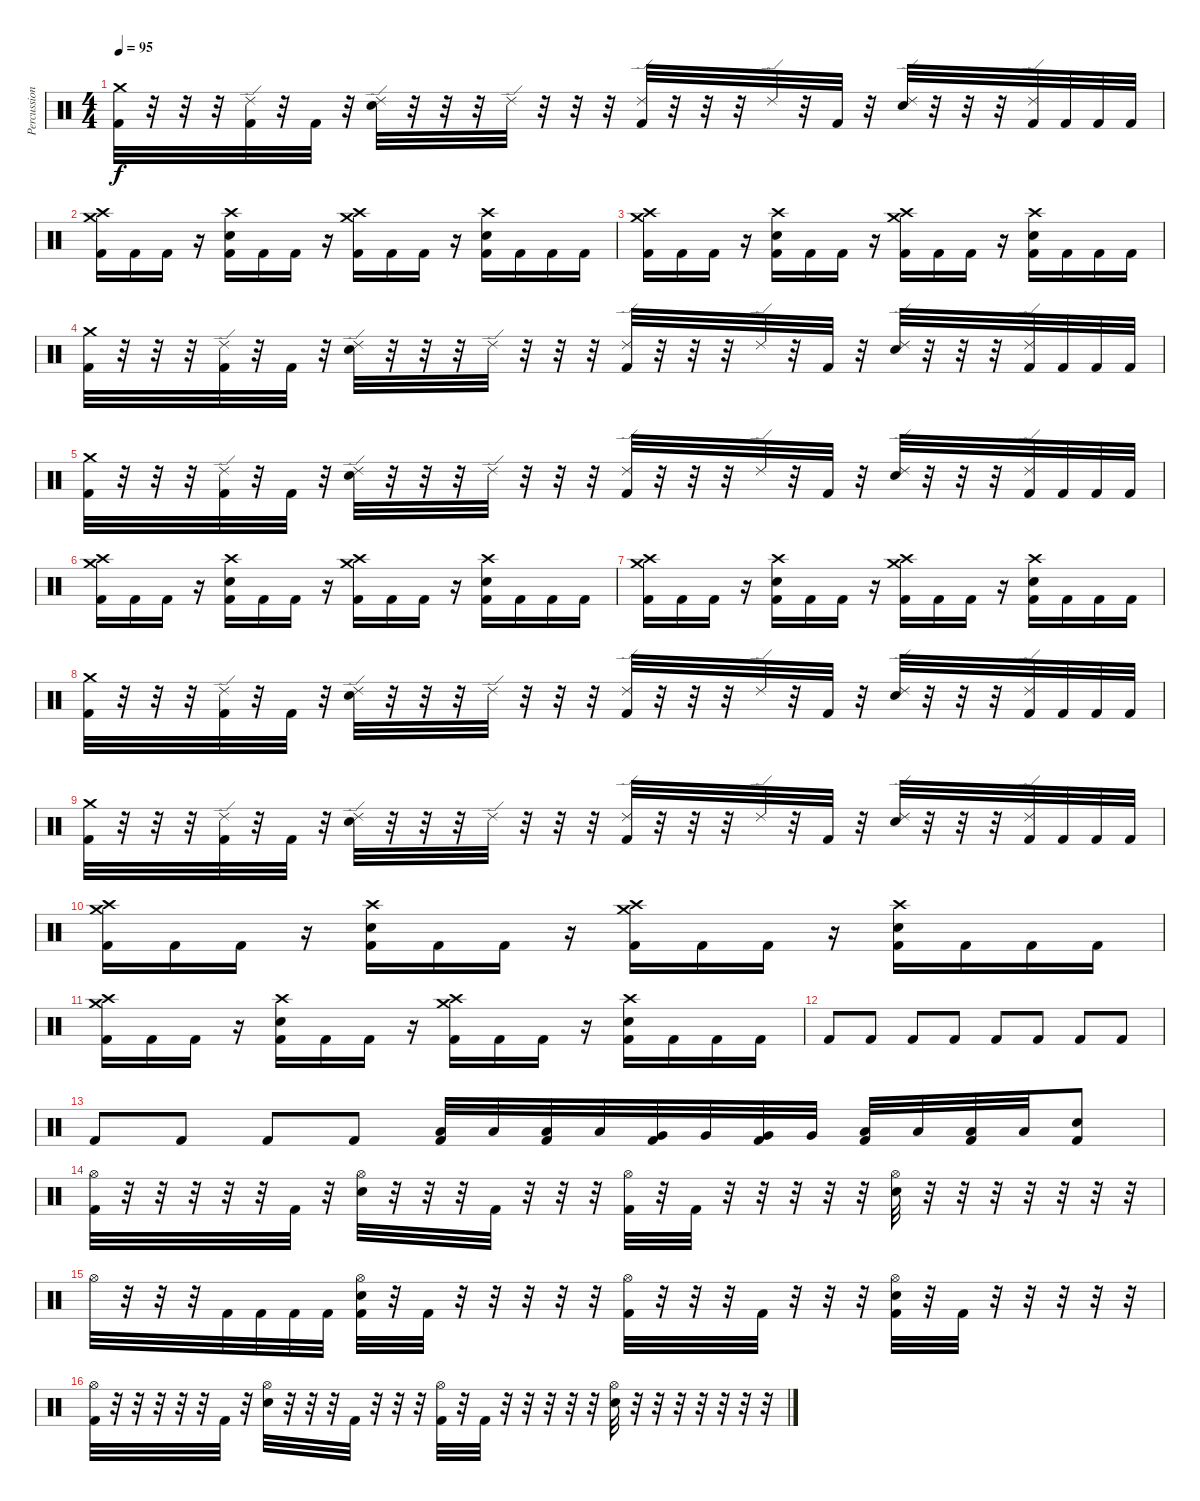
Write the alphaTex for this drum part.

\track ("Percussion" "Percussion") {instrument percussion}
\staff {score}
\articulation defaults
\ts (4 4)
\tempo 95
\clef neutral
\ks c
("Crash medium (hit)" "Kick (hit) 2").32{dy f} r.32 r.32 r.32 ("Ride (edge) 2" "Kick (hit) 2").32 r.32 "Kick (hit) 2".32 r.32 ("Ride (edge) 2" "Electric Snare (hit)").32 r.32 r.32 r.32 "Ride (edge) 2".32 r.32 r.32 r.32 ("Ride (edge) 2" "Kick (hit) 2").32 r.32 r.32 r.32 "Ride (edge) 2".32 r.32 "Kick (hit) 2".32 r.32 ("Ride (edge) 2" "Electric Snare (hit)").32 r.32 r.32 r.32 ("Ride (edge) 2" "Kick (hit) 2").32 "Kick (hit) 2".32 "Kick (hit) 2".32 "Kick (hit) 2".32 |
("Crash medium (hit)" "Crash high (hit)" "Kick (hit) 2").16 "Kick (hit) 2".16 "Kick (hit) 2".16 r.16 ("Crash high (hit)" "Electric Snare (hit)" "Kick (hit) 2").16 "Kick (hit) 2".16 "Kick (hit) 2".16 r.16 ("Crash medium (hit)" "Crash high (hit)" "Kick (hit) 2").16 "Kick (hit) 2".16 "Kick (hit) 2".16 r.16 ("Crash high (hit)" "Electric Snare (hit)" "Kick (hit) 2").16 "Kick (hit) 2".16 "Kick (hit) 2".16 "Kick (hit) 2".16 |
("Crash medium (hit)" "Crash high (hit)" "Kick (hit) 2").16 "Kick (hit) 2".16 "Kick (hit) 2".16 r.16 ("Crash high (hit)" "Electric Snare (hit)" "Kick (hit) 2").16 "Kick (hit) 2".16 "Kick (hit) 2".16 r.16 ("Crash medium (hit)" "Crash high (hit)" "Kick (hit) 2").16 "Kick (hit) 2".16 "Kick (hit) 2".16 r.16 ("Crash high (hit)" "Electric Snare (hit)" "Kick (hit) 2").16 "Kick (hit) 2".16 "Kick (hit) 2".16 "Kick (hit) 2".16 |
("Crash medium (hit)" "Kick (hit) 2").32 r.32 r.32 r.32 ("Ride (edge) 2" "Kick (hit) 2").32 r.32 "Kick (hit) 2".32 r.32 ("Ride (edge) 2" "Electric Snare (hit)").32 r.32 r.32 r.32 "Ride (edge) 2".32 r.32 r.32 r.32 ("Ride (edge) 2" "Kick (hit) 2").32 r.32 r.32 r.32 "Ride (edge) 2".32 r.32 "Kick (hit) 2".32 r.32 ("Ride (edge) 2" "Electric Snare (hit)").32 r.32 r.32 r.32 ("Ride (edge) 2" "Kick (hit) 2").32 "Kick (hit) 2".32 "Kick (hit) 2".32 "Kick (hit) 2".32 |
("Crash medium (hit)" "Kick (hit) 2").32 r.32 r.32 r.32 ("Ride (edge) 2" "Kick (hit) 2").32 r.32 "Kick (hit) 2".32 r.32 ("Ride (edge) 2" "Electric Snare (hit)").32 r.32 r.32 r.32 "Ride (edge) 2".32 r.32 r.32 r.32 ("Ride (edge) 2" "Kick (hit) 2").32 r.32 r.32 r.32 "Ride (edge) 2".32 r.32 "Kick (hit) 2".32 r.32 ("Ride (edge) 2" "Electric Snare (hit)").32 r.32 r.32 r.32 ("Ride (edge) 2" "Kick (hit) 2").32 "Kick (hit) 2".32 "Kick (hit) 2".32 "Kick (hit) 2".32 |
("Crash medium (hit)" "Crash high (hit)" "Kick (hit) 2").16 "Kick (hit) 2".16 "Kick (hit) 2".16 r.16 ("Crash high (hit)" "Electric Snare (hit)" "Kick (hit) 2").16 "Kick (hit) 2".16 "Kick (hit) 2".16 r.16 ("Crash medium (hit)" "Crash high (hit)" "Kick (hit) 2").16 "Kick (hit) 2".16 "Kick (hit) 2".16 r.16 ("Crash high (hit)" "Electric Snare (hit)" "Kick (hit) 2").16 "Kick (hit) 2".16 "Kick (hit) 2".16 "Kick (hit) 2".16 |
("Crash medium (hit)" "Crash high (hit)" "Kick (hit) 2").16 "Kick (hit) 2".16 "Kick (hit) 2".16 r.16 ("Crash high (hit)" "Electric Snare (hit)" "Kick (hit) 2").16 "Kick (hit) 2".16 "Kick (hit) 2".16 r.16 ("Crash medium (hit)" "Crash high (hit)" "Kick (hit) 2").16 "Kick (hit) 2".16 "Kick (hit) 2".16 r.16 ("Crash high (hit)" "Electric Snare (hit)" "Kick (hit) 2").16 "Kick (hit) 2".16 "Kick (hit) 2".16 "Kick (hit) 2".16 |
("Crash medium (hit)" "Kick (hit) 2").32 r.32 r.32 r.32 ("Ride (edge) 2" "Kick (hit) 2").32 r.32 "Kick (hit) 2".32 r.32 ("Ride (edge) 2" "Electric Snare (hit)").32 r.32 r.32 r.32 "Ride (edge) 2".32 r.32 r.32 r.32 ("Ride (edge) 2" "Kick (hit) 2").32 r.32 r.32 r.32 "Ride (edge) 2".32 r.32 "Kick (hit) 2".32 r.32 ("Ride (edge) 2" "Electric Snare (hit)").32 r.32 r.32 r.32 ("Ride (edge) 2" "Kick (hit) 2").32 "Kick (hit) 2".32 "Kick (hit) 2".32 "Kick (hit) 2".32 |
("Crash medium (hit)" "Kick (hit) 2").32 r.32 r.32 r.32 ("Ride (edge) 2" "Kick (hit) 2").32 r.32 "Kick (hit) 2".32 r.32 ("Ride (edge) 2" "Electric Snare (hit)").32 r.32 r.32 r.32 "Ride (edge) 2".32 r.32 r.32 r.32 ("Ride (edge) 2" "Kick (hit) 2").32 r.32 r.32 r.32 "Ride (edge) 2".32 r.32 "Kick (hit) 2".32 r.32 ("Ride (edge) 2" "Electric Snare (hit)").32 r.32 r.32 r.32 ("Ride (edge) 2" "Kick (hit) 2").32 "Kick (hit) 2".32 "Kick (hit) 2".32 "Kick (hit) 2".32 |
("Crash medium (hit)" "Crash high (hit)" "Kick (hit) 2").16 "Kick (hit) 2".16 "Kick (hit) 2".16 r.16 ("Crash high (hit)" "Electric Snare (hit)" "Kick (hit) 2").16 "Kick (hit) 2".16 "Kick (hit) 2".16 r.16 ("Crash medium (hit)" "Crash high (hit)" "Kick (hit) 2").16 "Kick (hit) 2".16 "Kick (hit) 2".16 r.16 ("Crash high (hit)" "Electric Snare (hit)" "Kick (hit) 2").16 "Kick (hit) 2".16 "Kick (hit) 2".16 "Kick (hit) 2".16 |
("Crash medium (hit)" "Crash high (hit)" "Kick (hit) 2").16 "Kick (hit) 2".16 "Kick (hit) 2".16 r.16 ("Crash high (hit)" "Electric Snare (hit)" "Kick (hit) 2").16 "Kick (hit) 2".16 "Kick (hit) 2".16 r.16 ("Crash medium (hit)" "Crash high (hit)" "Kick (hit) 2").16 "Kick (hit) 2".16 "Kick (hit) 2".16 r.16 ("Crash high (hit)" "Electric Snare (hit)" "Kick (hit) 2").16 "Kick (hit) 2".16 "Kick (hit) 2".16 "Kick (hit) 2".16 |
"Kick (hit) 2".8 "Kick (hit) 2".8 "Kick (hit) 2".8 "Kick (hit) 2".8 "Kick (hit) 2".8 "Kick (hit) 2".8 "Kick (hit) 2".8 "Kick (hit) 2".8 |
"Kick (hit) 2".8 "Kick (hit) 2".8 "Kick (hit) 2".8 "Kick (hit) 2".8 ("Low Tom (hit)" "Kick (hit) 2").32 "Low Tom (hit)".32 ("Low Tom (hit)" "Kick (hit) 2").32 "Low Tom (hit)".32 ("Very Low Tom (hit)" "Kick (hit) 2").32 "Very Low Tom (hit)".32 ("Very Low Tom (hit)" "Kick (hit) 2").32 "Very Low Tom (hit)".32 ("Low Floor Tom (hit)" "Kick (hit) 2").32 "Low Floor Tom (hit)".32 ("Low Floor Tom (hit)" "Kick (hit) 2").32 "Low Floor Tom (hit)".32 ("Electric Snare (hit)" "Kick (hit) 2").8 |
("Hi-Hat (open)" "Kick (hit) 2").32 r.32 r.32 r.32 r.32 r.32 "Kick (hit) 2".32 r.32 ("Hi-Hat (open)" "Electric Snare (hit)").32 r.32 r.32 r.32 "Kick (hit) 2".32 r.32 r.32 r.32 ("Hi-Hat (open)" "Kick (hit) 2").32 r.32 "Kick (hit) 2".32 r.32 r.32 r.32 r.32 r.32 ("Hi-Hat (open)" "Electric Snare (hit)").32 r.32 r.32 r.32 r.32 r.32 r.32 r.32 |
"Hi-Hat (open)".32 r.32 r.32 r.32 "Kick (hit) 2".32 "Kick (hit) 2".32 "Kick (hit) 2".32 "Kick (hit) 2".32 ("Hi-Hat (open)" "Electric Snare (hit)" "Kick (hit) 2").32 r.32 "Kick (hit) 2".32 r.32 r.32 r.32 r.32 r.32 ("Hi-Hat (open)" "Kick (hit) 2").32 r.32 r.32 r.32 "Kick (hit) 2".32 r.32 r.32 r.32 ("Hi-Hat (open)" "Electric Snare (hit)" "Kick (hit) 2").32 r.32 "Kick (hit) 2".32 r.32 r.32 r.32 r.32 r.32 |
("Hi-Hat (open)" "Kick (hit) 2").32 r.32 r.32 r.32 r.32 r.32 "Kick (hit) 2".32 r.32 ("Hi-Hat (open)" "Electric Snare (hit)").32 r.32 r.32 r.32 "Kick (hit) 2".32 r.32 r.32 r.32 ("Hi-Hat (open)" "Kick (hit) 2").32 r.32 "Kick (hit) 2".32 r.32 r.32 r.32 r.32 r.32 ("Hi-Hat (open)" "Electric Snare (hit)").32 r.32 r.32 r.32 r.32 r.32 r.32 r.32
